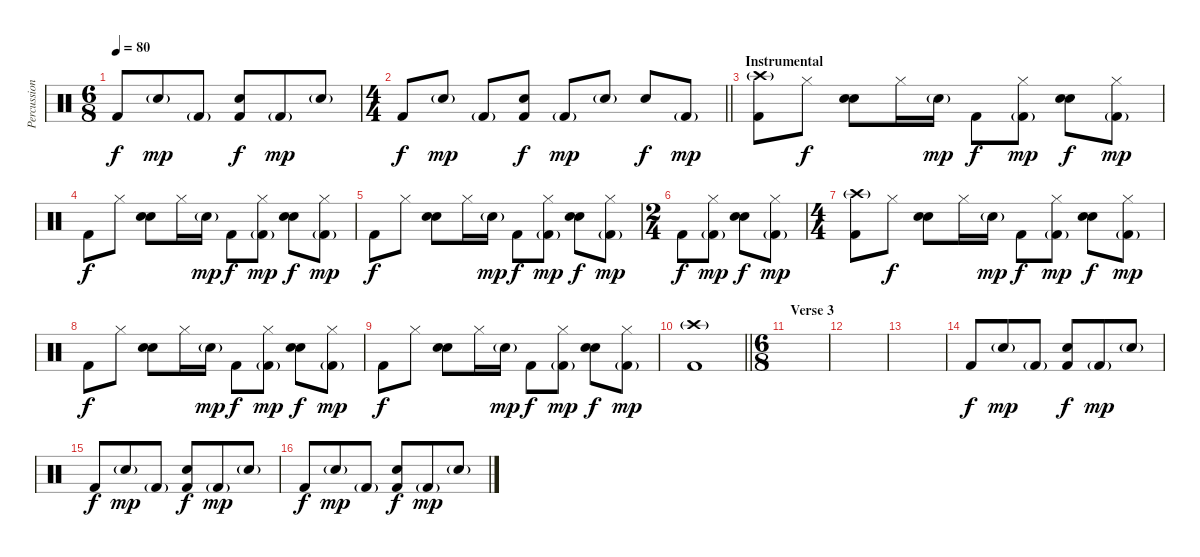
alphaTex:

\track ("Percussion" "Percussion") {instrument percussion}
\staff {score}
\articulation defaults
\ts (6 8)
\tempo 80
\clef neutral
\ks c "Kick (hit) 2".8{dy f} "Snare (hit) 2"{g}.8{dy mp} "Kick (hit) 2"{g}.8
("Snare (hit) 2" "Kick (hit) 2").8{dy f} "Kick (hit) 2"{g}.8{dy mp} "Snare (hit) 2"{g}.8 |
\ts (4 4)
\barLineRight lightlight "Kick (hit) 2".8{dy f} "Snare (hit) 2"{g}.8{dy mp} "Kick (hit) 2"{g}.8
("Snare (hit) 2" "Kick (hit) 2").8{dy f} "Kick (hit) 2"{g}.8{dy mp} "Snare (hit) 2"{g}.8 "Snare (hit) 2".8{dy f} "Kick (hit) 2"{g}.8{dy mp} |
\section ("" "Instrumental")
("Crash high (hit)"{g} "Kick (hit) 2").8 "Hi-Hat (closed)".8{dy f} ("Snare (hit) 2" "Hand Clap (hit)").8 "Hi-Hat (closed)".16 "Snare (hit) 2"{g}.16{dy mp} "Kick (hit) 2".8{dy f} ("Hi-Hat (closed)" "Kick (hit) 2"{g}).8{dy mp} ("Snare (hit) 2" "Hand Clap (hit)").8{dy f} ("Hi-Hat (closed)" "Kick (hit) 2"{g}).8{dy mp} |
"Kick (hit) 2".8{dy f} "Hi-Hat (closed)".8 ("Snare (hit) 2" "Hand Clap (hit)").8 "Hi-Hat (closed)".16 "Snare (hit) 2"{g}.16{dy mp} "Kick (hit) 2".8{dy f} ("Hi-Hat (closed)" "Kick (hit) 2"{g}).8{dy mp} ("Snare (hit) 2" "Hand Clap (hit)").8{dy f} ("Hi-Hat (closed)" "Kick (hit) 2"{g}).8{dy mp} |
"Kick (hit) 2".8{dy f} "Hi-Hat (closed)".8 ("Snare (hit) 2" "Hand Clap (hit)").8 "Hi-Hat (closed)".16 "Snare (hit) 2"{g}.16{dy mp} "Kick (hit) 2".8{dy f} ("Hi-Hat (closed)" "Kick (hit) 2"{g}).8{dy mp} ("Snare (hit) 2" "Hand Clap (hit)").8{dy f} ("Hi-Hat (closed)" "Kick (hit) 2"{g}).8{dy mp} |
\ts (2 4)
"Kick (hit) 2".8{dy f} ("Hi-Hat (closed)" "Kick (hit) 2"{g}).8{dy mp} ("Snare (hit) 2" "Hand Clap (hit)").8{dy f} ("Hi-Hat (closed)" "Kick (hit) 2"{g}).8{dy mp} |
\ts (4 4)
("Crash high (hit)"{g} "Kick (hit) 2").8 "Hi-Hat (closed)".8{dy f} ("Snare (hit) 2" "Hand Clap (hit)").8 "Hi-Hat (closed)".16 "Snare (hit) 2"{g}.16{dy mp} "Kick (hit) 2".8{dy f} ("Hi-Hat (closed)" "Kick (hit) 2"{g}).8{dy mp} ("Snare (hit) 2" "Hand Clap (hit)").8{dy f} ("Hi-Hat (closed)" "Kick (hit) 2"{g}).8{dy mp} |
"Kick (hit) 2".8{dy f} "Hi-Hat (closed)".8 ("Snare (hit) 2" "Hand Clap (hit)").8 "Hi-Hat (closed)".16 "Snare (hit) 2"{g}.16{dy mp} "Kick (hit) 2".8{dy f} ("Hi-Hat (closed)" "Kick (hit) 2"{g}).8{dy mp} ("Snare (hit) 2" "Hand Clap (hit)").8{dy f} ("Hi-Hat (closed)" "Kick (hit) 2"{g}).8{dy mp} |
"Kick (hit) 2".8{dy f} "Hi-Hat (closed)".8 ("Snare (hit) 2" "Hand Clap (hit)").8 "Hi-Hat (closed)".16 "Snare (hit) 2"{g}.16{dy mp} "Kick (hit) 2".8{dy f} ("Hi-Hat (closed)" "Kick (hit) 2"{g}).8{dy mp} ("Snare (hit) 2" "Hand Clap (hit)").8{dy f} ("Hi-Hat (closed)" "Kick (hit) 2"{g}).8{dy mp} |
\barLineRight lightlight
("Crash high (hit)"{g} "Kick (hit) 2").1 |
\ts (6 8)
\section ("" "Verse 3")
|
|
|
"Kick (hit) 2".8{dy f} "Snare (hit) 2"{g}.8{dy mp} "Kick (hit) 2"{g}.8 ("Snare (hit) 2" "Kick (hit) 2").8{dy f} "Kick (hit) 2"{g}.8{dy mp} "Snare (hit) 2"{g}.8 |
"Kick (hit) 2".8{dy f} "Snare (hit) 2"{g}.8{dy mp} "Kick (hit) 2"{g}.8 ("Snare (hit) 2" "Kick (hit) 2").8{dy f} "Kick (hit) 2"{g}.8{dy mp} "Snare (hit) 2"{g}.8 |
"Kick (hit) 2".8{dy f} "Snare (hit) 2"{g}.8{dy mp} "Kick (hit) 2"{g}.8 ("Snare (hit) 2" "Kick (hit) 2").8{dy f} "Kick (hit) 2"{g}.8{dy mp} "Snare (hit) 2"{g}.8
